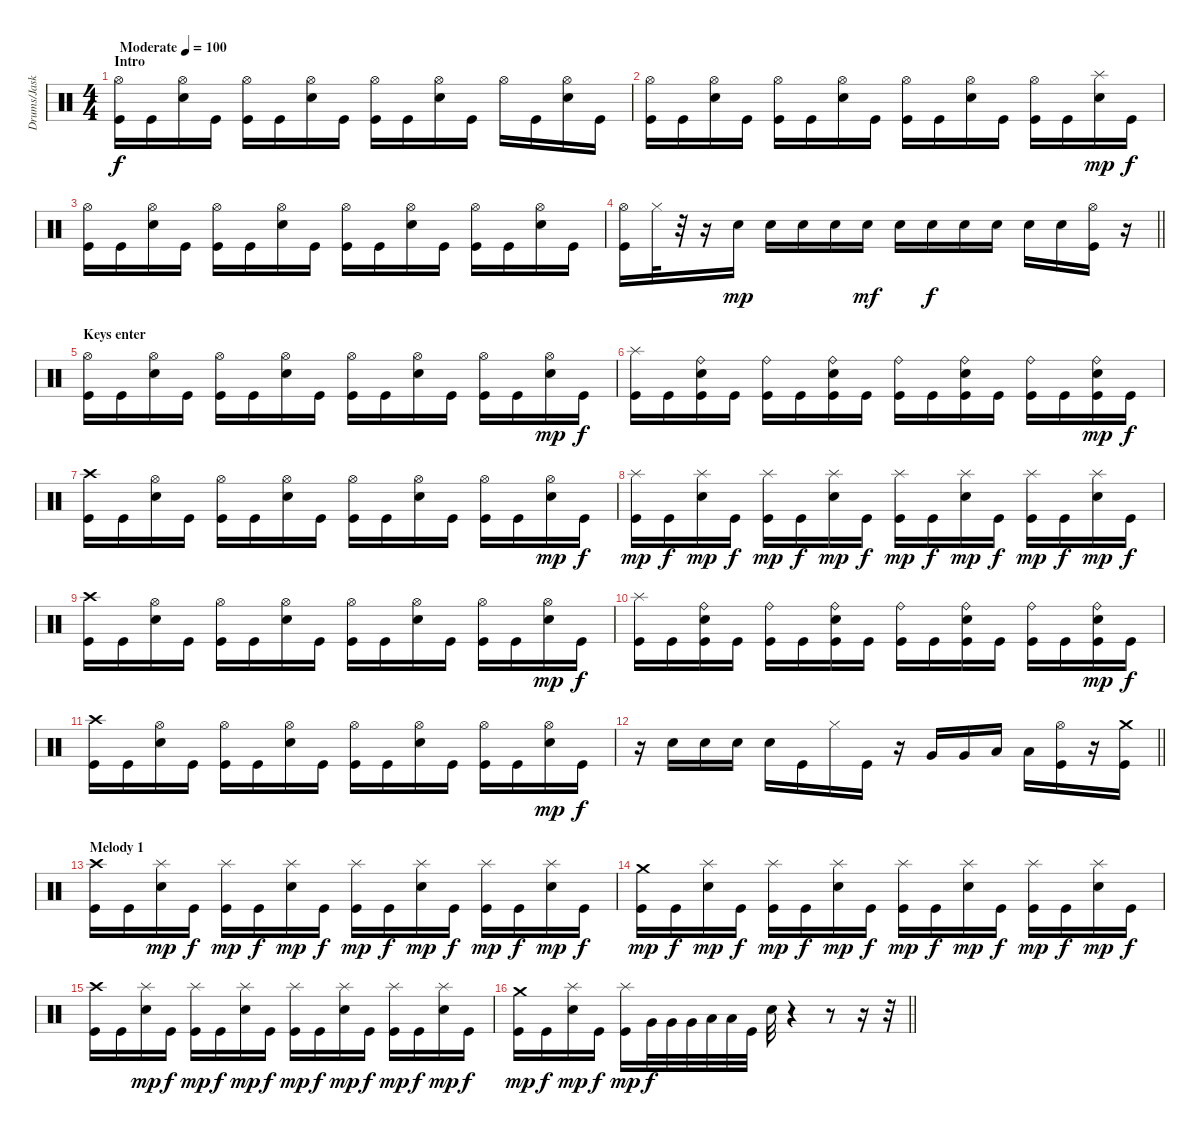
\track ("Drums/Jaska" "Drums/Jask") {instrument percussion}
\staff {score}
\articulation defaults
\ts (4 4)
\section ("" "Intro")
\tempo (100 "Moderate")
\clef neutral
\ks c
("Hi-Hat (open)" "Kick (hit)").16{dy f} "Kick (hit)".16 ("Hi-Hat (open)" "Electric Snare (hit)").16 "Kick (hit)".16 ("Hi-Hat (open)" "Kick (hit)").16 "Kick (hit)".16 ("Hi-Hat (open)" "Electric Snare (hit)").16 "Kick (hit)".16 ("Hi-Hat (open)" "Kick (hit)").16 "Kick (hit)".16 ("Hi-Hat (open)" "Electric Snare (hit)").16 "Kick (hit)".16 "Hi-Hat (open)".16 "Kick (hit)".16 ("Hi-Hat (open)" "Electric Snare (hit)").16 "Kick (hit)".16 |
("Hi-Hat (open)" "Kick (hit)").16 "Kick (hit)".16 ("Hi-Hat (open)" "Electric Snare (hit)").16 "Kick (hit)".16 ("Hi-Hat (open)" "Kick (hit)").16 "Kick (hit)".16 ("Hi-Hat (open)" "Electric Snare (hit)").16 "Kick (hit)".16 ("Hi-Hat (open)" "Kick (hit)").16 "Kick (hit)".16 ("Hi-Hat (open)" "Electric Snare (hit)").16 "Kick (hit)".16 ("Hi-Hat (open)" "Kick (hit)").16 "Kick (hit)".16 ("Splash (hit)" "Electric Snare (hit)").16{dy mp} "Kick (hit)".16{dy f} |
("Hi-Hat (open)" "Kick (hit)").16 "Kick (hit)".16 ("Hi-Hat (open)" "Electric Snare (hit)").16 "Kick (hit)".16 ("Hi-Hat (open)" "Kick (hit)").16 "Kick (hit)".16 ("Hi-Hat (open)" "Electric Snare (hit)").16 "Kick (hit)".16 ("Hi-Hat (open)" "Kick (hit)").16 "Kick (hit)".16 ("Hi-Hat (open)" "Electric Snare (hit)").16 "Kick (hit)".16 ("Hi-Hat (open)" "Kick (hit)").16 "Kick (hit)".16 ("Hi-Hat (open)" "Electric Snare (hit)").16 "Kick (hit)".16 |
\barLineRight lightlight
("Hi-Hat (open)" "Kick (hit)").16 "Hi-Hat (closed)".32 r.32 r.16 "Electric Snare (hit)".16{dy mp} "Electric Snare (hit)".16 "Electric Snare (hit)".16 "Electric Snare (hit)".16 "Electric Snare (hit)".16{dy mf} "Electric Snare (hit)".16 "Electric Snare (hit)".16{dy f} "Electric Snare (hit)".16 "Electric Snare (hit)".16 "Electric Snare (hit)".16 "Electric Snare (hit)".16 ("Hi-Hat (open)" "Kick (hit)").16 r.16 |
\section ("" "Keys enter")
("Hi-Hat (open)" "Kick (hit)").16 "Kick (hit)".16 ("Hi-Hat (open)" "Electric Snare (hit)").16 "Kick (hit)".16 ("Hi-Hat (open)" "Kick (hit)").16 "Kick (hit)".16 ("Hi-Hat (open)" "Electric Snare (hit)").16 "Kick (hit)".16 ("Hi-Hat (open)" "Kick (hit)").16 "Kick (hit)".16 ("Hi-Hat (open)" "Electric Snare (hit)").16 "Kick (hit)".16 ("Hi-Hat (open)" "Kick (hit)").16 "Kick (hit)".16 ("Hi-Hat (open)" "Electric Snare (hit)").16{dy mp} "Kick (hit)".16{dy f} |
("Splash (hit)" "Kick (hit)").16 "Kick (hit)".16 ("Ride (bell)" "Kick (hit)" "Electric Snare (hit)").16 "Kick (hit)".16 ("Ride (bell)" "Kick (hit)").16 "Kick (hit)".16 ("Ride (bell)" "Kick (hit)" "Electric Snare (hit)").16 "Kick (hit)".16 ("Ride (bell)" "Kick (hit)").16 "Kick (hit)".16 ("Ride (bell)" "Kick (hit)" "Electric Snare (hit)").16 "Kick (hit)".16 ("Ride (bell)" "Kick (hit)").16 "Kick (hit)".16 ("Ride (bell)" "Kick (hit)" "Electric Snare (hit)").16{dy mp} "Kick (hit)".16{dy f} |
("Crash high (hit)" "Kick (hit)").16 "Kick (hit)".16 ("Hi-Hat (open)" "Electric Snare (hit)").16 "Kick (hit)".16 ("Hi-Hat (open)" "Kick (hit)").16 "Kick (hit)".16 ("Hi-Hat (open)" "Electric Snare (hit)").16 "Kick (hit)".16 ("Hi-Hat (open)" "Kick (hit)").16 "Kick (hit)".16 ("Hi-Hat (open)" "Electric Snare (hit)").16 "Kick (hit)".16 ("Hi-Hat (open)" "Kick (hit)").16 "Kick (hit)".16 ("Hi-Hat (open)" "Electric Snare (hit)").16{dy mp} "Kick (hit)".16{dy f} |
("Splash (hit)" "Kick (hit)").16{dy mp} "Kick (hit)".16{dy f} ("Splash (hit)" "Electric Snare (hit)").16{dy mp} "Kick (hit)".16{dy f} ("Splash (hit)" "Kick (hit)").16{dy mp} "Kick (hit)".16{dy f} ("Splash (hit)" "Electric Snare (hit)").16{dy mp} "Kick (hit)".16{dy f} ("Splash (hit)" "Kick (hit)").16{dy mp} "Kick (hit)".16{dy f} ("Splash (hit)" "Electric Snare (hit)").16{dy mp} "Kick (hit)".16{dy f} ("Splash (hit)" "Kick (hit)").16{dy mp} "Kick (hit)".16{dy f} ("Splash (hit)" "Electric Snare (hit)").16{dy mp} "Kick (hit)".16{dy f} |
("Crash high (hit)" "Kick (hit)").16 "Kick (hit)".16 ("Hi-Hat (open)" "Electric Snare (hit)").16 "Kick (hit)".16 ("Hi-Hat (open)" "Kick (hit)").16 "Kick (hit)".16 ("Hi-Hat (open)" "Electric Snare (hit)").16 "Kick (hit)".16 ("Hi-Hat (open)" "Kick (hit)").16 "Kick (hit)".16 ("Hi-Hat (open)" "Electric Snare (hit)").16 "Kick (hit)".16 ("Hi-Hat (open)" "Kick (hit)").16 "Kick (hit)".16 ("Hi-Hat (open)" "Electric Snare (hit)").16{dy mp} "Kick (hit)".16{dy f} |
("Splash (hit)" "Kick (hit)").16 "Kick (hit)".16 ("Ride (bell)" "Kick (hit)" "Electric Snare (hit)").16 "Kick (hit)".16 ("Ride (bell)" "Kick (hit)").16 "Kick (hit)".16 ("Ride (bell)" "Kick (hit)" "Electric Snare (hit)").16 "Kick (hit)".16 ("Ride (bell)" "Kick (hit)").16 "Kick (hit)".16 ("Ride (bell)" "Kick (hit)" "Electric Snare (hit)").16 "Kick (hit)".16 ("Ride (bell)" "Kick (hit)").16 "Kick (hit)".16 ("Ride (bell)" "Kick (hit)" "Electric Snare (hit)").16{dy mp} "Kick (hit)".16{dy f} |
("Crash high (hit)" "Kick (hit)").16 "Kick (hit)".16 ("Hi-Hat (open)" "Electric Snare (hit)").16 "Kick (hit)".16 ("Hi-Hat (open)" "Kick (hit)").16 "Kick (hit)".16 ("Hi-Hat (open)" "Electric Snare (hit)").16 "Kick (hit)".16 ("Hi-Hat (open)" "Kick (hit)").16 "Kick (hit)".16 ("Hi-Hat (open)" "Electric Snare (hit)").16 "Kick (hit)".16 ("Hi-Hat (open)" "Kick (hit)").16 "Kick (hit)".16 ("Hi-Hat (open)" "Electric Snare (hit)").16{dy mp} "Kick (hit)".16{dy f} |
\barLineRight lightlight
r.16 "Snare (hit) 2".16 "Snare (hit) 2".16 "Snare (hit) 2".16 "Snare (hit) 2".16 "Kick (hit)".16 "Hi-Hat (closed)".16 "Kick (hit)".16 r.16 "Very Low Tom (hit)".16 "Very Low Tom (hit)".16 "Low Floor Tom (hit)".16 "Low Floor Tom (hit)".16 ("Hi-Hat (open)" "Kick (hit)").16 r.16 ("Crash medium (hit)" "Kick (hit)").16 |
\section ("" "Melody 1")
("Crash high (hit)" "Kick (hit)").16 "Kick (hit)".16 ("Splash (hit)" "Electric Snare (hit)").16{dy mp} "Kick (hit)".16{dy f} ("Splash (hit)" "Kick (hit)").16{dy mp} "Kick (hit)".16{dy f} ("Splash (hit)" "Electric Snare (hit)").16{dy mp} "Kick (hit)".16{dy f} ("Splash (hit)" "Kick (hit)").16{dy mp} "Kick (hit)".16{dy f} ("Splash (hit)" "Electric Snare (hit)").16{dy mp} "Kick (hit)".16{dy f} ("Splash (hit)" "Kick (hit)").16{dy mp} "Kick (hit)".16{dy f} ("Splash (hit)" "Electric Snare (hit)").16{dy mp} "Kick (hit)".16{dy f} |
("Crash medium (hit)" "Kick (hit)").16{dy mp} "Kick (hit)".16{dy f} ("Splash (hit)" "Electric Snare (hit)").16{dy mp} "Kick (hit)".16{dy f} ("Splash (hit)" "Kick (hit)").16{dy mp} "Kick (hit)".16{dy f} ("Splash (hit)" "Electric Snare (hit)").16{dy mp} "Kick (hit)".16{dy f} ("Splash (hit)" "Kick (hit)").16{dy mp} "Kick (hit)".16{dy f} ("Splash (hit)" "Electric Snare (hit)").16{dy mp} "Kick (hit)".16{dy f} ("Splash (hit)" "Kick (hit)").16{dy mp} "Kick (hit)".16{dy f} ("Splash (hit)" "Electric Snare (hit)").16{dy mp} "Kick (hit)".16{dy f} |
("Crash high (hit)" "Kick (hit)").16 "Kick (hit)".16 ("Splash (hit)" "Electric Snare (hit)").16{dy mp} "Kick (hit)".16{dy f} ("Splash (hit)" "Kick (hit)").16{dy mp} "Kick (hit)".16{dy f} ("Splash (hit)" "Electric Snare (hit)").16{dy mp} "Kick (hit)".16{dy f} ("Splash (hit)" "Kick (hit)").16{dy mp} "Kick (hit)".16{dy f} ("Splash (hit)" "Electric Snare (hit)").16{dy mp} "Kick (hit)".16{dy f} ("Splash (hit)" "Kick (hit)").16{dy mp} "Kick (hit)".16{dy f} ("Splash (hit)" "Electric Snare (hit)").16{dy mp} "Kick (hit)".16{dy f} |
\barLineRight lightlight
("Crash medium (hit)" "Kick (hit)").16{dy mp} "Kick (hit)".16{dy f} ("Splash (hit)" "Electric Snare (hit)").16{dy mp} "Kick (hit)".16{dy f} ("Splash (hit)" "Kick (hit)").16{dy mp} "Very Low Tom (hit)".32{dy f} "Very Low Tom (hit)".32 "Very Low Tom (hit)".32 "Low Floor Tom (hit)".32 "Low Floor Tom (hit)".32 "Kick (hit)".32 "Electric Snare (hit)".32 r.4 r.8 r.16 r.32
